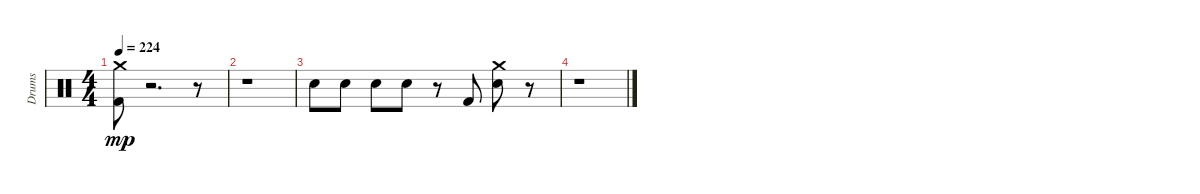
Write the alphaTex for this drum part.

\track ("Drums" "Drums") {instrument percussion}
\staff {score}
\articulation defaults
\ts (4 4)
\tempo 224
\clef neutral
\ks c
("Crash medium (hit)" "Kick (hit) 2").8{dy mp} r.2{d} r.8 |
r.1 |
"Electric Snare (hit)".8 "Electric Snare (hit)".8 "Electric Snare (hit)".8 "Electric Snare (hit)".8 r.8 "Kick (hit) 2".8 ("Electric Snare (hit)" "Crash medium (hit)").8 r.8 |
r.1
